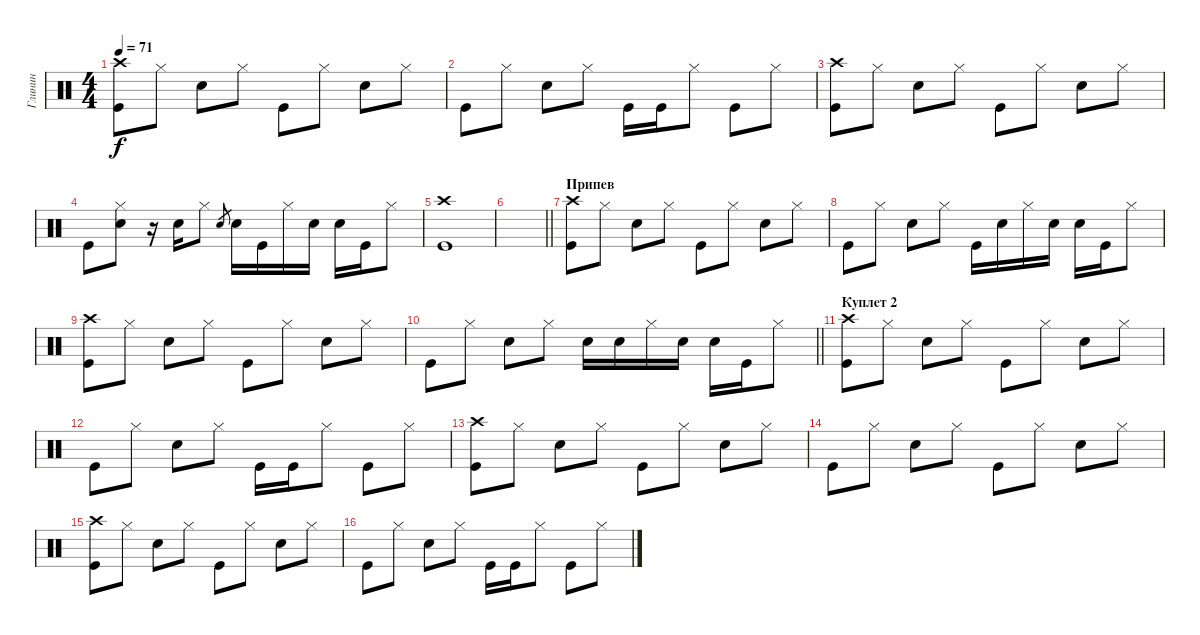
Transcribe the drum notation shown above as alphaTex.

\track ("Глинин" "Глинин") {instrument percussion}
\staff {score}
\articulation defaults
\ts (4 4)
\tempo 71
\clef neutral
\ks c
("Kick (hit)" "Crash high (hit)").8{dy f} "Hi-Hat (closed)".8 "Snare (hit) 2".8 "Hi-Hat (closed)".8 "Kick (hit)".8 "Hi-Hat (closed)".8 "Snare (hit) 2".8 "Hi-Hat (closed)".8 |
"Kick (hit)".8 "Hi-Hat (closed)".8 "Snare (hit) 2".8 "Hi-Hat (closed)".8 "Kick (hit)".16 "Kick (hit)".16 "Hi-Hat (closed)".8 "Kick (hit)".8 "Hi-Hat (closed)".8 |
("Kick (hit)" "Crash high (hit)").8 "Hi-Hat (closed)".8 "Snare (hit) 2".8 "Hi-Hat (closed)".8 "Kick (hit)".8 "Hi-Hat (closed)".8 "Snare (hit) 2".8 "Hi-Hat (closed)".8 |
"Kick (hit)".8 ("Hi-Hat (closed)" "Snare (hit) 2").8 r.16 "Snare (hit) 2".16 "Hi-Hat (closed)".8 "Snare (hit) 2".8{gr} "Snare (hit) 2".16 "Kick (hit)".16 "Hi-Hat (closed)".16 "Snare (hit) 2".16 "Snare (hit) 2".16 "Kick (hit)".16 "Hi-Hat (closed)".8 |
("Crash high (hit)" "Kick (hit)").1 |
\barLineRight lightlight
|
\section ("" "Припев")
("Kick (hit)" "Crash high (hit)").8 "Hi-Hat (closed)".8 "Snare (hit) 2".8 "Hi-Hat (closed)".8 "Kick (hit)".8 "Hi-Hat (closed)".8 "Snare (hit) 2".8 "Hi-Hat (closed)".8 |
"Kick (hit)".8 "Hi-Hat (closed)".8 "Snare (hit) 2".8 "Hi-Hat (closed)".8 "Kick (hit)".16 "Snare (hit) 2".16 "Hi-Hat (closed)".16 "Snare (hit) 2".16 "Snare (hit) 2".16 "Kick (hit)".16 "Hi-Hat (closed)".8 |
("Kick (hit)" "Crash high (hit)").8 "Hi-Hat (closed)".8 "Snare (hit) 2".8 "Hi-Hat (closed)".8 "Kick (hit)".8 "Hi-Hat (closed)".8 "Snare (hit) 2".8 "Hi-Hat (closed)".8 |
\barLineRight lightlight "Kick (hit)".8 "Hi-Hat (closed)".8 "Snare (hit) 2".8 "Hi-Hat (closed)".8 "Snare (hit) 2".16 "Snare (hit) 2".16 "Hi-Hat (closed)".16 "Snare (hit) 2".16 "Snare (hit) 2".16 "Kick (hit)".16 "Hi-Hat (closed)".8
|
\section ("" "Куплет 2")
("Kick (hit)" "Crash high (hit)").8 "Hi-Hat (closed)".8 "Snare (hit) 2".8 "Hi-Hat (closed)".8 "Kick (hit)".8 "Hi-Hat (closed)".8 "Snare (hit) 2".8 "Hi-Hat (closed)".8 |
"Kick (hit)".8 "Hi-Hat (closed)".8 "Snare (hit) 2".8 "Hi-Hat (closed)".8 "Kick (hit)".16 "Kick (hit)".16 "Hi-Hat (closed)".8 "Kick (hit)".8 "Hi-Hat (closed)".8 |
("Kick (hit)" "Crash high (hit)").8 "Hi-Hat (closed)".8 "Snare (hit) 2".8 "Hi-Hat (closed)".8 "Kick (hit)".8 "Hi-Hat (closed)".8 "Snare (hit) 2".8 "Hi-Hat (closed)".8 |
"Kick (hit)".8 "Hi-Hat (closed)".8 "Snare (hit) 2".8 "Hi-Hat (closed)".8 "Kick (hit)".8 "Hi-Hat (closed)".8 "Snare (hit) 2".8 "Hi-Hat (closed)".8 |
("Kick (hit)" "Crash high (hit)").8 "Hi-Hat (closed)".8 "Snare (hit) 2".8 "Hi-Hat (closed)".8 "Kick (hit)".8 "Hi-Hat (closed)".8 "Snare (hit) 2".8 "Hi-Hat (closed)".8 |
"Kick (hit)".8 "Hi-Hat (closed)".8 "Snare (hit) 2".8 "Hi-Hat (closed)".8 "Kick (hit)".16 "Kick (hit)".16 "Hi-Hat (closed)".8 "Kick (hit)".8 "Hi-Hat (closed)".8
